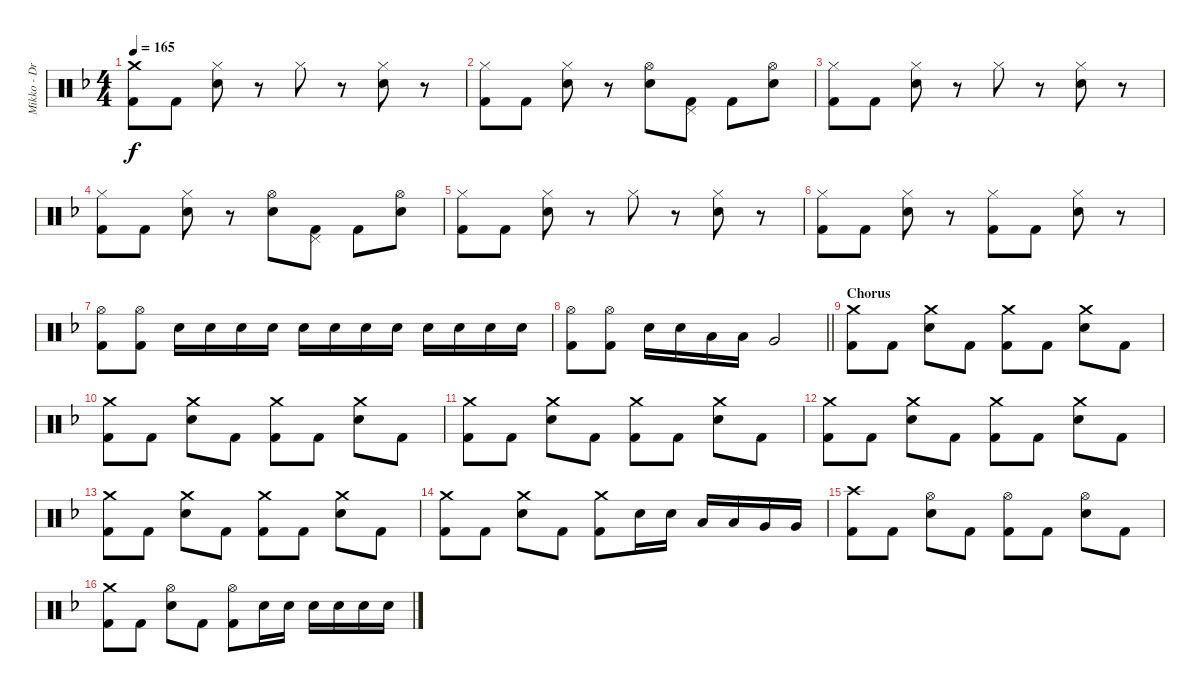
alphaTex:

\track ("Mikko - Drums" "Mikko - Dr") {instrument percussion}
\staff {score}
\articulation defaults
\ts (4 4)
\tempo 165
\clef neutral
\ks dminor
("Crash medium (hit)" "Kick (hit) 2").8{dy f} "Kick (hit) 2".8 ("Hi-Hat (closed)" "Snare (hit) 2").8 r.8 "Hi-Hat (closed)".8 r.8 ("Hi-Hat (closed)" "Snare (hit) 2").8 r.8 |
("Hi-Hat (closed)" "Kick (hit) 2").8 "Kick (hit) 2".8 ("Hi-Hat (closed)" "Snare (hit) 2").8 r.8 ("Hi-Hat (open)" "Snare (hit) 2").8 ("Pedal Hi-Hat (hit)" "Kick (hit) 2").8 "Kick (hit) 2".8 ("Hi-Hat (open)" "Snare (hit) 2").8 |
("Hi-Hat (closed)" "Kick (hit) 2").8 "Kick (hit) 2".8 ("Hi-Hat (closed)" "Snare (hit) 2").8 r.8 "Hi-Hat (closed)".8 r.8 ("Hi-Hat (closed)" "Snare (hit) 2").8 r.8 |
("Hi-Hat (closed)" "Kick (hit) 2").8 "Kick (hit) 2".8 ("Hi-Hat (closed)" "Snare (hit) 2").8 r.8 ("Hi-Hat (open)" "Snare (hit) 2").8 ("Pedal Hi-Hat (hit)" "Kick (hit) 2").8 "Kick (hit) 2".8 ("Hi-Hat (open)" "Snare (hit) 2").8 |
("Hi-Hat (closed)" "Kick (hit) 2").8 "Kick (hit) 2".8 ("Hi-Hat (closed)" "Snare (hit) 2").8 r.8 "Hi-Hat (closed)".8 r.8 ("Hi-Hat (closed)" "Snare (hit) 2").8 r.8 |
("Hi-Hat (closed)" "Kick (hit) 2").8 "Kick (hit) 2".8 ("Hi-Hat (closed)" "Snare (hit) 2").8 r.8 ("Hi-Hat (closed)" "Kick (hit) 2").8 "Kick (hit) 2".8 ("Hi-Hat (closed)" "Snare (hit) 2").8 r.8 |
("Hi-Hat (open)" "Kick (hit) 2").8 ("Hi-Hat (open)" "Kick (hit) 2").8 "Snare (hit) 2".16 "Snare (hit) 2".16 "Snare (hit) 2".16 "Snare (hit) 2".16 "Snare (hit) 2".16 "Snare (hit) 2".16 "Snare (hit) 2".16 "Snare (hit) 2".16 "Snare (hit) 2".16 "Snare (hit) 2".16 "Snare (hit) 2".16 "Snare (hit) 2".16 |
\barLineRight lightlight
("Hi-Hat (open)" "Kick (hit) 2").8 ("Hi-Hat (open)" "Kick (hit) 2").8 "Snare (hit) 2".16 "Snare (hit) 2".16 "Low Tom (hit)".16 "Low Tom (hit)".16 "Very Low Tom (hit)".2 |
\section ("" "Chorus")
("Crash medium (hit)" "Kick (hit) 2").8 "Kick (hit) 2".8 ("Crash medium (hit)" "Snare (hit) 2").8 "Kick (hit) 2".8 ("Crash medium (hit)" "Kick (hit) 2").8 "Kick (hit) 2".8 ("Crash medium (hit)" "Snare (hit) 2").8 "Kick (hit) 2".8 |
("Crash medium (hit)" "Kick (hit) 2").8 "Kick (hit) 2".8 ("Crash medium (hit)" "Snare (hit) 2").8 "Kick (hit) 2".8 ("Crash medium (hit)" "Kick (hit) 2").8 "Kick (hit) 2".8 ("Crash medium (hit)" "Snare (hit) 2").8 "Kick (hit) 2".8 |
("Crash medium (hit)" "Kick (hit) 2").8 "Kick (hit) 2".8 ("Crash medium (hit)" "Snare (hit) 2").8 "Kick (hit) 2".8 ("Crash medium (hit)" "Kick (hit) 2").8 "Kick (hit) 2".8 ("Crash medium (hit)" "Snare (hit) 2").8 "Kick (hit) 2".8 |
("Crash medium (hit)" "Kick (hit) 2").8 "Kick (hit) 2".8 ("Crash medium (hit)" "Snare (hit) 2").8 "Kick (hit) 2".8 ("Crash medium (hit)" "Kick (hit) 2").8 "Kick (hit) 2".8 ("Crash medium (hit)" "Snare (hit) 2").8 "Kick (hit) 2".8 |
("Crash medium (hit)" "Kick (hit) 2").8 "Kick (hit) 2".8 ("Crash medium (hit)" "Snare (hit) 2").8 "Kick (hit) 2".8 ("Crash medium (hit)" "Kick (hit) 2").8 "Kick (hit) 2".8 ("Crash medium (hit)" "Snare (hit) 2").8 "Kick (hit) 2".8 |
("Crash medium (hit)" "Kick (hit) 2").8 "Kick (hit) 2".8 ("Crash medium (hit)" "Snare (hit) 2").8 "Kick (hit) 2".8 ("Crash medium (hit)" "Kick (hit) 2").8 "Snare (hit) 2".16 "Snare (hit) 2".16 "Low Tom (hit)".16 "Low Tom (hit)".16 "Very Low Tom (hit)".16 "Very Low Tom (hit)".16 |
("Crash high (hit)" "Kick (hit) 2").8 "Kick (hit) 2".8 ("Hi-Hat (open)" "Snare (hit) 2").8 "Kick (hit) 2".8 ("Hi-Hat (open)" "Kick (hit) 2").8 "Kick (hit) 2".8 ("Hi-Hat (open)" "Snare (hit) 2").8 "Kick (hit) 2".8 |
("Crash medium (hit)" "Kick (hit) 2").8 "Kick (hit) 2".8 ("Hi-Hat (open)" "Snare (hit) 2").8 "Kick (hit) 2".8 ("Hi-Hat (open)" "Kick (hit) 2").8 "Snare (hit) 2".16 "Snare (hit) 2".16 "Snare (hit) 2".16 "Snare (hit) 2".16 "Snare (hit) 2".16 "Snare (hit) 2".16
